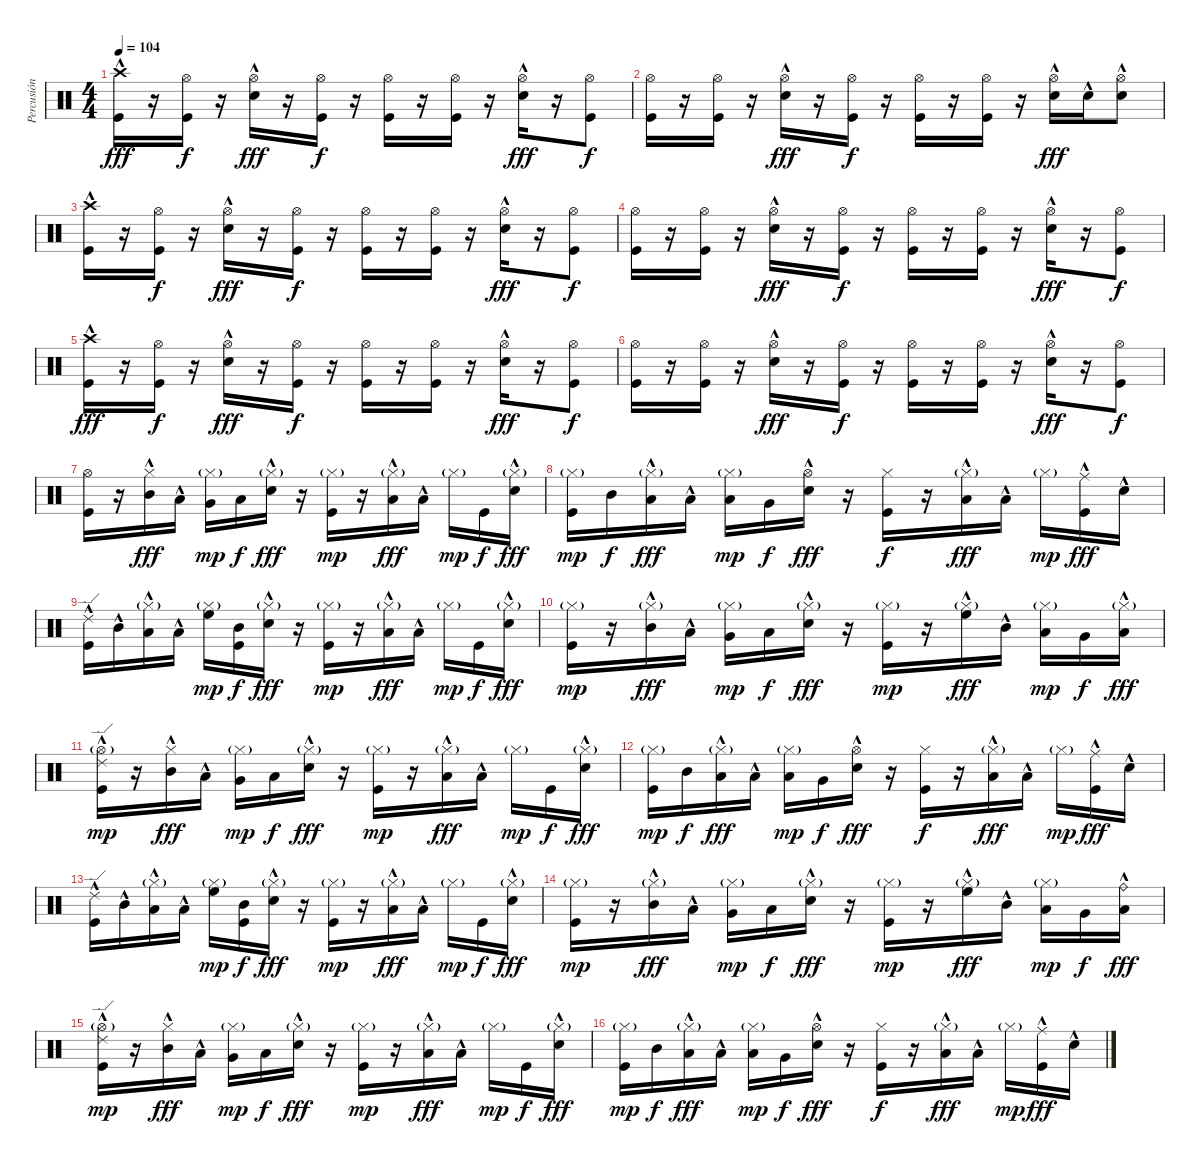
\track ("Percusión" "Percusión") {instrument percussion}
\staff {score}
\articulation defaults
\ts (4 4)
\tempo 104
\clef neutral
\ks c
("Crash high (hit)"{hac} "Kick (hit)").16{dy fff} r.16 ("Hi-Hat (open)" "Kick (hit)").16{dy f} r.16 ("Hi-Hat (open)" "Snare (hit) 2"{hac}).16{dy fff} r.16 ("Hi-Hat (open)" "Kick (hit)").16{dy f} r.16 ("Hi-Hat (open)" "Kick (hit)").16 r.16 ("Hi-Hat (open)" "Kick (hit)").16 r.16 ("Hi-Hat (open)" "Snare (hit) 2"{hac}).16{dy fff} r.16 ("Hi-Hat (open)" "Kick (hit)").8{dy f} |
("Hi-Hat (open)" "Kick (hit)").16 r.16 ("Hi-Hat (open)" "Kick (hit)").16 r.16 ("Hi-Hat (open)" "Snare (hit) 2"{hac}).16{dy fff} r.16 ("Hi-Hat (open)" "Kick (hit)").16{dy f} r.16 ("Hi-Hat (open)" "Kick (hit)").16 r.16 ("Hi-Hat (open)" "Kick (hit)").16 r.16 ("Hi-Hat (open)" "Snare (hit) 2"{hac}).16{dy fff} "Snare (hit) 2"{hac}.16 ("Hi-Hat (open)" "Snare (hit) 2"{hac}).8 |
("Crash high (hit)"{hac} "Kick (hit)").16 r.16 ("Hi-Hat (open)" "Kick (hit)").16{dy f} r.16 ("Hi-Hat (open)" "Snare (hit) 2"{hac}).16{dy fff} r.16 ("Hi-Hat (open)" "Kick (hit)").16{dy f} r.16 ("Hi-Hat (open)" "Kick (hit)").16 r.16 ("Hi-Hat (open)" "Kick (hit)").16 r.16 ("Hi-Hat (open)" "Snare (hit) 2"{hac}).16{dy fff} r.16 ("Hi-Hat (open)" "Kick (hit)").8{dy f} |
("Hi-Hat (open)" "Kick (hit)").16 r.16 ("Hi-Hat (open)" "Kick (hit)").16 r.16 ("Hi-Hat (open)" "Snare (hit) 2"{hac}).16{dy fff} r.16 ("Hi-Hat (open)" "Kick (hit)").16{dy f} r.16 ("Hi-Hat (open)" "Kick (hit)").16 r.16 ("Hi-Hat (open)" "Kick (hit)").16 r.16 ("Hi-Hat (open)" "Snare (hit) 2"{hac}).16{dy fff} r.16 ("Hi-Hat (open)" "Kick (hit)").8{dy f} |
("Crash high (hit)"{hac} "Kick (hit)").16{dy fff} r.16 ("Hi-Hat (open)" "Kick (hit)").16{dy f} r.16 ("Hi-Hat (open)" "Snare (hit) 2"{hac}).16{dy fff} r.16 ("Hi-Hat (open)" "Kick (hit)").16{dy f} r.16 ("Hi-Hat (open)" "Kick (hit)").16 r.16 ("Hi-Hat (open)" "Kick (hit)").16 r.16 ("Hi-Hat (open)" "Snare (hit) 2"{hac}).16{dy fff} r.16 ("Hi-Hat (open)" "Kick (hit)").8{dy f} |
("Hi-Hat (open)" "Kick (hit)").16 r.16 ("Hi-Hat (open)" "Kick (hit)").16 r.16 ("Hi-Hat (open)" "Snare (hit) 2"{hac}).16{dy fff} r.16 ("Hi-Hat (open)" "Kick (hit)").16{dy f} r.16 ("Hi-Hat (open)" "Kick (hit)").16 r.16 ("Hi-Hat (open)" "Kick (hit)").16 r.16 ("Hi-Hat (open)" "Snare (hit) 2"{hac}).16{dy fff} r.16 ("Hi-Hat (open)" "Kick (hit)").8{dy f} |
("Hi-Hat (open)" "Kick (hit)").16 r.16 ("Hi-Hat (closed)" "Mid Tom (hit)"{hac}).16{dy fff} "Low Tom (hit)"{hac}.16 ("Hi-Hat (closed)"{g} "Very Low Tom (hit)").16{dy mp} "Low Floor Tom (hit)".16{dy f} ("Hi-Hat (closed)"{g} "Snare (hit) 2"{hac}).16{dy fff} r.16 ("Hi-Hat (closed)"{g} "Kick (hit)").16{dy mp} r.16 ("Hi-Hat (closed)"{g} "Low Tom (hit)"{hac}).16{dy fff} "Low Floor Tom (hit)"{hac}.16 "Hi-Hat (closed)"{g}.16{dy mp} "Kick (hit)".16{dy f} ("Hi-Hat (closed)"{g} "Snare (hit) 2"{hac}).16{dy fff} |
("Hi-Hat (closed)"{g} "Kick (hit)").16{dy mp} "Mid Tom (hit)".16{dy f} ("Hi-Hat (closed)"{g} "Low Tom (hit)"{hac}).16{dy fff} "Low Floor Tom (hit)"{hac}.16 ("Hi-Hat (closed)"{g} "Low Floor Tom (hit)").16{dy mp} "Very Low Tom (hit)".16{dy f} ("Hi-Hat (open)" "Snare (hit) 2"{hac}).16{dy fff} r.16 ("Hi-Hat (closed)" "Kick (hit)").16{dy f} r.16 ("Hi-Hat (closed)"{g} "Low Tom (hit)"{hac}).16{dy fff} "Low Floor Tom (hit)"{hac}.16 "Hi-Hat (closed)"{g}.16{dy mp} ("Ride (middle)"{hac} "Kick (hit)").16{dy fff} "Snare (hit) 2"{hac}.16 |
("Ride (edge) 2"{hac} "Kick (hit)").16 "Mid Tom (hit)"{hac}.16 ("Hi-Hat (closed)"{g} "Low Tom (hit)"{hac}).16 "Low Floor Tom (hit)"{hac}.16 ("Hi-Hat (closed)"{g} "High Floor Tom (hit)").16{dy mp} ("Mid Tom (hit)" "Kick (hit)").16{dy f} ("Hi-Hat (closed)"{g} "Snare (hit) 2"{hac}).16{dy fff} r.16 ("Hi-Hat (closed)"{g} "Kick (hit)").16{dy mp} r.16 ("Hi-Hat (closed)"{g} "Low Tom (hit)"{hac}).16{dy fff} "Low Floor Tom (hit)"{hac}.16 "Hi-Hat (closed)"{g}.16{dy mp} "Kick (hit)".16{dy f} ("Hi-Hat (closed)"{g} "Snare (hit) 2"{hac}).16{dy fff} |
("Hi-Hat (closed)"{g} "Kick (hit)").16{dy mp} r.16 ("Hi-Hat (closed)"{g} "Mid Tom (hit)"{hac}).16{dy fff} "Low Tom (hit)"{hac}.16 ("Hi-Hat (closed)"{g} "Very Low Tom (hit)").16{dy mp} "Low Floor Tom (hit)".16{dy f} ("Hi-Hat (closed)"{g} "Snare (hit) 2"{hac}).16{dy fff} r.16 ("Hi-Hat (closed)"{g} "Kick (hit)").16{dy mp} r.16 ("Hi-Hat (closed)"{g} "High Floor Tom (hit)"{hac}).16{dy fff} "Mid Tom (hit)"{hac}.16 ("Hi-Hat (closed)"{g} "Low Tom (hit)").16{dy mp} "Very Low Tom (hit)".16{dy f} ("Hi-Hat (closed)"{g} "Low Floor Tom (hit)"{hac}).16{dy fff} |
("Ride (edge) 2"{hac} "Hi-Hat (open)"{g} "Kick (hit)").16{dy mp} r.16 ("Hi-Hat (closed)" "Mid Tom (hit)"{hac}).16{dy fff} "Low Tom (hit)"{hac}.16 ("Hi-Hat (closed)"{g} "Very Low Tom (hit)").16{dy mp} "Low Floor Tom (hit)".16{dy f} ("Hi-Hat (closed)"{g} "Snare (hit) 2"{hac}).16{dy fff} r.16 ("Hi-Hat (closed)"{g} "Kick (hit)").16{dy mp} r.16 ("Hi-Hat (closed)"{g} "Low Tom (hit)"{hac}).16{dy fff} "Low Floor Tom (hit)"{hac}.16 "Hi-Hat (closed)"{g}.16{dy mp} "Kick (hit)".16{dy f} ("Hi-Hat (closed)"{g} "Snare (hit) 2"{hac}).16{dy fff} |
("Hi-Hat (closed)"{g} "Kick (hit)").16{dy mp} "Mid Tom (hit)".16{dy f} ("Hi-Hat (closed)"{g} "Low Tom (hit)"{hac}).16{dy fff} "Low Floor Tom (hit)"{hac}.16 ("Hi-Hat (closed)"{g} "Low Floor Tom (hit)").16{dy mp} "Very Low Tom (hit)".16{dy f} ("Hi-Hat (open)" "Snare (hit) 2"{hac}).16{dy fff} r.16 ("Hi-Hat (closed)" "Kick (hit)").16{dy f} r.16 ("Hi-Hat (closed)"{g} "Low Tom (hit)"{hac}).16{dy fff} "Low Floor Tom (hit)"{hac}.16 "Hi-Hat (closed)"{g}.16{dy mp} ("Ride (middle)"{hac} "Kick (hit)").16{dy fff} "Snare (hit) 2"{hac}.16 |
("Ride (edge) 2"{hac} "Kick (hit)").16 "Mid Tom (hit)"{hac}.16 ("Hi-Hat (closed)"{g} "Low Tom (hit)"{hac}).16 "Low Floor Tom (hit)"{hac}.16 ("Hi-Hat (closed)"{g} "High Floor Tom (hit)").16{dy mp} ("Mid Tom (hit)" "Kick (hit)").16{dy f} ("Hi-Hat (closed)"{g} "Snare (hit) 2"{hac}).16{dy fff} r.16 ("Hi-Hat (closed)"{g} "Kick (hit)").16{dy mp} r.16 ("Hi-Hat (closed)"{g} "Low Tom (hit)"{hac}).16{dy fff} "Low Floor Tom (hit)"{hac}.16 "Hi-Hat (closed)"{g}.16{dy mp} "Kick (hit)".16{dy f} ("Hi-Hat (closed)"{g} "Snare (hit) 2"{hac}).16{dy fff} |
("Hi-Hat (closed)"{g} "Kick (hit)").16{dy mp} r.16 ("Hi-Hat (closed)"{g} "Mid Tom (hit)"{hac}).16{dy fff} "Low Tom (hit)"{hac}.16 ("Hi-Hat (closed)"{g} "Very Low Tom (hit)").16{dy mp} "Low Floor Tom (hit)".16{dy f} ("Hi-Hat (closed)"{g} "Snare (hit) 2"{hac}).16{dy fff} r.16 ("Hi-Hat (closed)"{g} "Kick (hit)").16{dy mp} r.16 ("Hi-Hat (closed)"{g} "High Floor Tom (hit)"{hac}).16{dy fff} "Mid Tom (hit)"{hac}.16 ("Hi-Hat (closed)"{g} "Low Tom (hit)").16{dy mp} "Very Low Tom (hit)".16{dy f} ("Ride (bell)"{hac} "Low Floor Tom (hit)"{hac}).16{dy fff} |
("Ride (edge) 2"{hac} "Hi-Hat (open)"{g} "Kick (hit)").16{dy mp} r.16 ("Hi-Hat (closed)" "Mid Tom (hit)"{hac}).16{dy fff} "Low Tom (hit)"{hac}.16 ("Hi-Hat (closed)"{g} "Very Low Tom (hit)").16{dy mp} "Low Floor Tom (hit)".16{dy f} ("Hi-Hat (closed)"{g} "Snare (hit) 2"{hac}).16{dy fff} r.16 ("Hi-Hat (closed)"{g} "Kick (hit)").16{dy mp} r.16 ("Hi-Hat (closed)"{g} "Low Tom (hit)"{hac}).16{dy fff} "Low Floor Tom (hit)"{hac}.16 "Hi-Hat (closed)"{g}.16{dy mp} "Kick (hit)".16{dy f} ("Hi-Hat (closed)"{g} "Snare (hit) 2"{hac}).16{dy fff} |
("Hi-Hat (closed)"{g} "Kick (hit)").16{dy mp} "Mid Tom (hit)".16{dy f} ("Hi-Hat (closed)"{g} "Low Tom (hit)"{hac}).16{dy fff} "Low Floor Tom (hit)"{hac}.16 ("Hi-Hat (closed)"{g} "Low Floor Tom (hit)").16{dy mp} "Very Low Tom (hit)".16{dy f} ("Hi-Hat (open)" "Snare (hit) 2"{hac}).16{dy fff} r.16 ("Hi-Hat (closed)" "Kick (hit)").16{dy f} r.16 ("Hi-Hat (closed)"{g} "Low Tom (hit)"{hac}).16{dy fff} "Low Floor Tom (hit)"{hac}.16 "Hi-Hat (closed)"{g}.16{dy mp} ("Ride (middle)"{hac} "Kick (hit)").16{dy fff} "Snare (hit) 2"{hac}.16
